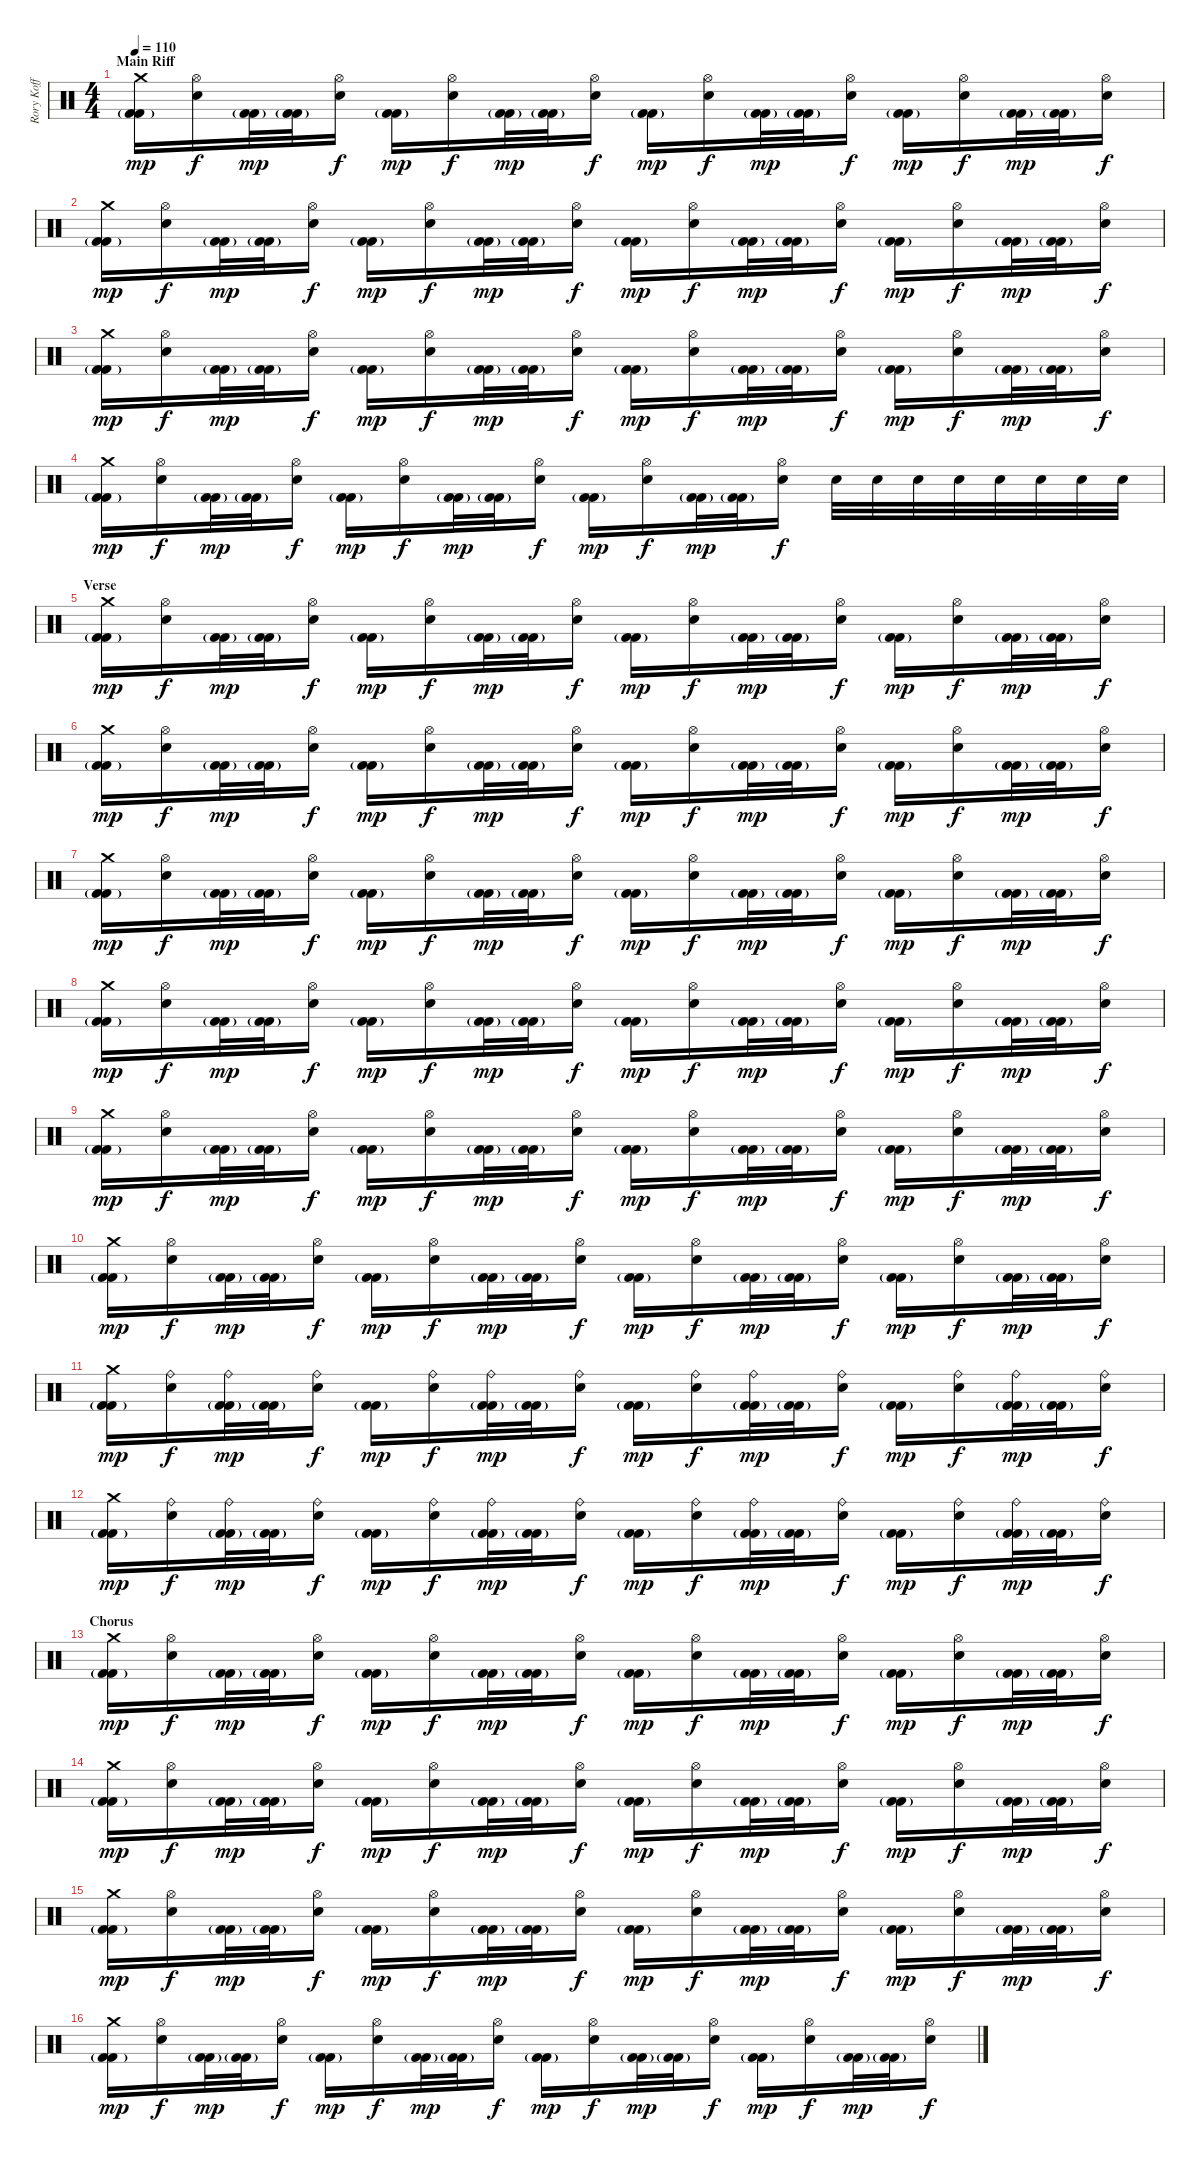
\track ("Rory Koff" "Rory Koff") {instrument percussion}
\staff {score}
\articulation defaults
\ts (4 4)
\section ("" "Main Riff")
\tempo 110
\clef neutral
\ks c
("Crash medium (hit)" "Kick (hit) 2"{g} "Kick (hit) 2").16{dy mp} ("Hi-Hat (open)" "Snare (hit) 2").16{dy f} ("Kick (hit) 2"{g} "Kick (hit) 2").32{dy mp} ("Kick (hit) 2"{g} "Kick (hit) 2").32 ("Hi-Hat (open)" "Snare (hit) 2").16{dy f} ("Kick (hit) 2"{g} "Kick (hit) 2").16{dy mp} ("Hi-Hat (open)" "Snare (hit) 2").16{dy f} ("Kick (hit) 2"{g} "Kick (hit) 2").32{dy mp} ("Kick (hit) 2"{g} "Kick (hit) 2").32 ("Hi-Hat (open)" "Snare (hit) 2").16{dy f} ("Kick (hit) 2"{g} "Kick (hit) 2").16{dy mp} ("Hi-Hat (open)" "Snare (hit) 2").16{dy f} ("Kick (hit) 2"{g} "Kick (hit) 2").32{dy mp} ("Kick (hit) 2"{g} "Kick (hit) 2").32 ("Hi-Hat (open)" "Snare (hit) 2").16{dy f} ("Kick (hit) 2"{g} "Kick (hit) 2").16{dy mp} ("Hi-Hat (open)" "Snare (hit) 2").16{dy f} ("Kick (hit) 2"{g} "Kick (hit) 2").32{dy mp} ("Kick (hit) 2"{g} "Kick (hit) 2").32 ("Hi-Hat (open)" "Snare (hit) 2").16{dy f} |
("Crash medium (hit)" "Kick (hit) 2"{g} "Kick (hit) 2").16{dy mp} ("Hi-Hat (open)" "Snare (hit) 2").16{dy f} ("Kick (hit) 2"{g} "Kick (hit) 2").32{dy mp} ("Kick (hit) 2"{g} "Kick (hit) 2").32 ("Hi-Hat (open)" "Snare (hit) 2").16{dy f} ("Kick (hit) 2"{g} "Kick (hit) 2").16{dy mp} ("Hi-Hat (open)" "Snare (hit) 2").16{dy f} ("Kick (hit) 2"{g} "Kick (hit) 2").32{dy mp} ("Kick (hit) 2"{g} "Kick (hit) 2").32 ("Hi-Hat (open)" "Snare (hit) 2").16{dy f} ("Kick (hit) 2"{g} "Kick (hit) 2").16{dy mp} ("Hi-Hat (open)" "Snare (hit) 2").16{dy f} ("Kick (hit) 2"{g} "Kick (hit) 2").32{dy mp} ("Kick (hit) 2"{g} "Kick (hit) 2").32 ("Hi-Hat (open)" "Snare (hit) 2").16{dy f} ("Kick (hit) 2"{g} "Kick (hit) 2").16{dy mp} ("Hi-Hat (open)" "Snare (hit) 2").16{dy f} ("Kick (hit) 2"{g} "Kick (hit) 2").32{dy mp} ("Kick (hit) 2"{g} "Kick (hit) 2").32 ("Hi-Hat (open)" "Snare (hit) 2").16{dy f} |
("Crash medium (hit)" "Kick (hit) 2"{g} "Kick (hit) 2").16{dy mp} ("Hi-Hat (open)" "Snare (hit) 2").16{dy f} ("Kick (hit) 2"{g} "Kick (hit) 2").32{dy mp} ("Kick (hit) 2"{g} "Kick (hit) 2").32 ("Hi-Hat (open)" "Snare (hit) 2").16{dy f} ("Kick (hit) 2"{g} "Kick (hit) 2").16{dy mp} ("Hi-Hat (open)" "Snare (hit) 2").16{dy f} ("Kick (hit) 2"{g} "Kick (hit) 2").32{dy mp} ("Kick (hit) 2"{g} "Kick (hit) 2").32 ("Hi-Hat (open)" "Snare (hit) 2").16{dy f} ("Kick (hit) 2"{g} "Kick (hit) 2").16{dy mp} ("Hi-Hat (open)" "Snare (hit) 2").16{dy f} ("Kick (hit) 2"{g} "Kick (hit) 2").32{dy mp} ("Kick (hit) 2"{g} "Kick (hit) 2").32 ("Hi-Hat (open)" "Snare (hit) 2").16{dy f} ("Kick (hit) 2"{g} "Kick (hit) 2").16{dy mp} ("Hi-Hat (open)" "Snare (hit) 2").16{dy f} ("Kick (hit) 2"{g} "Kick (hit) 2").32{dy mp} ("Kick (hit) 2"{g} "Kick (hit) 2").32 ("Hi-Hat (open)" "Snare (hit) 2").16{dy f} |
("Crash medium (hit)" "Kick (hit) 2"{g} "Kick (hit) 2").16{dy mp} ("Hi-Hat (open)" "Snare (hit) 2").16{dy f} ("Kick (hit) 2"{g} "Kick (hit) 2").32{dy mp} ("Kick (hit) 2"{g} "Kick (hit) 2").32 ("Hi-Hat (open)" "Snare (hit) 2").16{dy f} ("Kick (hit) 2"{g} "Kick (hit) 2").16{dy mp} ("Hi-Hat (open)" "Snare (hit) 2").16{dy f} ("Kick (hit) 2"{g} "Kick (hit) 2").32{dy mp} ("Kick (hit) 2"{g} "Kick (hit) 2").32 ("Hi-Hat (open)" "Snare (hit) 2").16{dy f} ("Kick (hit) 2"{g} "Kick (hit) 2").16{dy mp} ("Hi-Hat (open)" "Snare (hit) 2").16{dy f} ("Kick (hit) 2"{g} "Kick (hit) 2").32{dy mp} ("Kick (hit) 2"{g} "Kick (hit) 2").32 ("Hi-Hat (open)" "Snare (hit) 2").16{dy f} "Snare (hit) 2".32 "Snare (hit) 2".32 "Snare (hit) 2".32 "Snare (hit) 2".32 "Snare (hit) 2".32 "Snare (hit) 2".32 "Snare (hit) 2".32 "Snare (hit) 2".32 |
\section ("" "Verse")
("Crash medium (hit)" "Kick (hit) 2"{g} "Kick (hit) 2").16{dy mp} ("Hi-Hat (open)" "Snare (hit) 2").16{dy f} ("Kick (hit) 2"{g} "Kick (hit) 2").32{dy mp} ("Kick (hit) 2"{g} "Kick (hit) 2").32 ("Hi-Hat (open)" "Snare (hit) 2").16{dy f} ("Kick (hit) 2"{g} "Kick (hit) 2").16{dy mp} ("Hi-Hat (open)" "Snare (hit) 2").16{dy f} ("Kick (hit) 2"{g} "Kick (hit) 2").32{dy mp} ("Kick (hit) 2"{g} "Kick (hit) 2").32 ("Hi-Hat (open)" "Snare (hit) 2").16{dy f} ("Kick (hit) 2"{g} "Kick (hit) 2").16{dy mp} ("Hi-Hat (open)" "Snare (hit) 2").16{dy f} ("Kick (hit) 2"{g} "Kick (hit) 2").32{dy mp} ("Kick (hit) 2"{g} "Kick (hit) 2").32 ("Hi-Hat (open)" "Snare (hit) 2").16{dy f} ("Kick (hit) 2"{g} "Kick (hit) 2").16{dy mp} ("Hi-Hat (open)" "Snare (hit) 2").16{dy f} ("Kick (hit) 2"{g} "Kick (hit) 2").32{dy mp} ("Kick (hit) 2"{g} "Kick (hit) 2").32 ("Hi-Hat (open)" "Snare (hit) 2").16{dy f} |
("Crash medium (hit)" "Kick (hit) 2"{g} "Kick (hit) 2").16{dy mp} ("Hi-Hat (open)" "Snare (hit) 2").16{dy f} ("Kick (hit) 2"{g} "Kick (hit) 2").32{dy mp} ("Kick (hit) 2"{g} "Kick (hit) 2").32 ("Hi-Hat (open)" "Snare (hit) 2").16{dy f} ("Kick (hit) 2"{g} "Kick (hit) 2").16{dy mp} ("Hi-Hat (open)" "Snare (hit) 2").16{dy f} ("Kick (hit) 2"{g} "Kick (hit) 2").32{dy mp} ("Kick (hit) 2"{g} "Kick (hit) 2").32 ("Hi-Hat (open)" "Snare (hit) 2").16{dy f} ("Kick (hit) 2"{g} "Kick (hit) 2").16{dy mp} ("Hi-Hat (open)" "Snare (hit) 2").16{dy f} ("Kick (hit) 2"{g} "Kick (hit) 2").32{dy mp} ("Kick (hit) 2"{g} "Kick (hit) 2").32 ("Hi-Hat (open)" "Snare (hit) 2").16{dy f} ("Kick (hit) 2"{g} "Kick (hit) 2").16{dy mp} ("Hi-Hat (open)" "Snare (hit) 2").16{dy f} ("Kick (hit) 2"{g} "Kick (hit) 2").32{dy mp} ("Kick (hit) 2"{g} "Kick (hit) 2").32 ("Hi-Hat (open)" "Snare (hit) 2").16{dy f} |
("Crash medium (hit)" "Kick (hit) 2"{g} "Kick (hit) 2").16{dy mp} ("Hi-Hat (open)" "Snare (hit) 2").16{dy f} ("Kick (hit) 2"{g} "Kick (hit) 2").32{dy mp} ("Kick (hit) 2"{g} "Kick (hit) 2").32 ("Hi-Hat (open)" "Snare (hit) 2").16{dy f} ("Kick (hit) 2"{g} "Kick (hit) 2").16{dy mp} ("Hi-Hat (open)" "Snare (hit) 2").16{dy f} ("Kick (hit) 2"{g} "Kick (hit) 2").32{dy mp} ("Kick (hit) 2"{g} "Kick (hit) 2").32 ("Hi-Hat (open)" "Snare (hit) 2").16{dy f} ("Kick (hit) 2"{g} "Kick (hit) 2").16{dy mp} ("Hi-Hat (open)" "Snare (hit) 2").16{dy f} ("Kick (hit) 2"{g} "Kick (hit) 2").32{dy mp} ("Kick (hit) 2"{g} "Kick (hit) 2").32 ("Hi-Hat (open)" "Snare (hit) 2").16{dy f} ("Kick (hit) 2"{g} "Kick (hit) 2").16{dy mp} ("Hi-Hat (open)" "Snare (hit) 2").16{dy f} ("Kick (hit) 2"{g} "Kick (hit) 2").32{dy mp} ("Kick (hit) 2"{g} "Kick (hit) 2").32 ("Hi-Hat (open)" "Snare (hit) 2").16{dy f} |
("Crash medium (hit)" "Kick (hit) 2"{g} "Kick (hit) 2").16{dy mp} ("Hi-Hat (open)" "Snare (hit) 2").16{dy f} ("Kick (hit) 2"{g} "Kick (hit) 2").32{dy mp} ("Kick (hit) 2"{g} "Kick (hit) 2").32 ("Hi-Hat (open)" "Snare (hit) 2").16{dy f} ("Kick (hit) 2"{g} "Kick (hit) 2").16{dy mp} ("Hi-Hat (open)" "Snare (hit) 2").16{dy f} ("Kick (hit) 2"{g} "Kick (hit) 2").32{dy mp} ("Kick (hit) 2"{g} "Kick (hit) 2").32 ("Hi-Hat (open)" "Snare (hit) 2").16{dy f} ("Kick (hit) 2"{g} "Kick (hit) 2").16{dy mp} ("Hi-Hat (open)" "Snare (hit) 2").16{dy f} ("Kick (hit) 2"{g} "Kick (hit) 2").32{dy mp} ("Kick (hit) 2"{g} "Kick (hit) 2").32 ("Hi-Hat (open)" "Snare (hit) 2").16{dy f} ("Kick (hit) 2"{g} "Kick (hit) 2").16{dy mp} ("Hi-Hat (open)" "Snare (hit) 2").16{dy f} ("Kick (hit) 2"{g} "Kick (hit) 2").32{dy mp} ("Kick (hit) 2"{g} "Kick (hit) 2").32 ("Hi-Hat (open)" "Snare (hit) 2").16{dy f} |
("Crash medium (hit)" "Kick (hit) 2"{g} "Kick (hit) 2").16{dy mp} ("Hi-Hat (open)" "Snare (hit) 2").16{dy f} ("Kick (hit) 2"{g} "Kick (hit) 2").32{dy mp} ("Kick (hit) 2"{g} "Kick (hit) 2").32 ("Hi-Hat (open)" "Snare (hit) 2").16{dy f} ("Kick (hit) 2"{g} "Kick (hit) 2").16{dy mp} ("Hi-Hat (open)" "Snare (hit) 2").16{dy f} ("Kick (hit) 2"{g} "Kick (hit) 2").32{dy mp} ("Kick (hit) 2"{g} "Kick (hit) 2").32 ("Hi-Hat (open)" "Snare (hit) 2").16{dy f} ("Kick (hit) 2"{g} "Kick (hit) 2").16{dy mp} ("Hi-Hat (open)" "Snare (hit) 2").16{dy f} ("Kick (hit) 2"{g} "Kick (hit) 2").32{dy mp} ("Kick (hit) 2"{g} "Kick (hit) 2").32 ("Hi-Hat (open)" "Snare (hit) 2").16{dy f} ("Kick (hit) 2"{g} "Kick (hit) 2").16{dy mp} ("Hi-Hat (open)" "Snare (hit) 2").16{dy f} ("Kick (hit) 2"{g} "Kick (hit) 2").32{dy mp} ("Kick (hit) 2"{g} "Kick (hit) 2").32 ("Hi-Hat (open)" "Snare (hit) 2").16{dy f} |
("Crash medium (hit)" "Kick (hit) 2"{g} "Kick (hit) 2").16{dy mp} ("Hi-Hat (open)" "Snare (hit) 2").16{dy f} ("Kick (hit) 2"{g} "Kick (hit) 2").32{dy mp} ("Kick (hit) 2"{g} "Kick (hit) 2").32 ("Hi-Hat (open)" "Snare (hit) 2").16{dy f} ("Kick (hit) 2"{g} "Kick (hit) 2").16{dy mp} ("Hi-Hat (open)" "Snare (hit) 2").16{dy f} ("Kick (hit) 2"{g} "Kick (hit) 2").32{dy mp} ("Kick (hit) 2"{g} "Kick (hit) 2").32 ("Hi-Hat (open)" "Snare (hit) 2").16{dy f} ("Kick (hit) 2"{g} "Kick (hit) 2").16{dy mp} ("Hi-Hat (open)" "Snare (hit) 2").16{dy f} ("Kick (hit) 2"{g} "Kick (hit) 2").32{dy mp} ("Kick (hit) 2"{g} "Kick (hit) 2").32 ("Hi-Hat (open)" "Snare (hit) 2").16{dy f} ("Kick (hit) 2"{g} "Kick (hit) 2").16{dy mp} ("Hi-Hat (open)" "Snare (hit) 2").16{dy f} ("Kick (hit) 2"{g} "Kick (hit) 2").32{dy mp} ("Kick (hit) 2"{g} "Kick (hit) 2").32 ("Hi-Hat (open)" "Snare (hit) 2").16{dy f} |
("Crash medium (hit)" "Kick (hit) 2"{g} "Kick (hit) 2").16{dy mp} ("Ride (bell)" "Snare (hit) 2").16{dy f} ("Ride (bell)" "Kick (hit) 2"{g} "Kick (hit) 2").32{dy mp} ("Kick (hit) 2"{g} "Kick (hit) 2").32 ("Ride (bell)" "Snare (hit) 2").16{dy f} ("Kick (hit) 2"{g} "Kick (hit) 2").16{dy mp} ("Ride (bell)" "Snare (hit) 2").16{dy f} ("Ride (bell)" "Kick (hit) 2"{g} "Kick (hit) 2").32{dy mp} ("Kick (hit) 2"{g} "Kick (hit) 2").32 ("Ride (bell)" "Snare (hit) 2").16{dy f} ("Kick (hit) 2"{g} "Kick (hit) 2").16{dy mp} ("Ride (bell)" "Snare (hit) 2").16{dy f} ("Ride (bell)" "Kick (hit) 2"{g} "Kick (hit) 2").32{dy mp} ("Kick (hit) 2"{g} "Kick (hit) 2").32 ("Ride (bell)" "Snare (hit) 2").16{dy f} ("Kick (hit) 2"{g} "Kick (hit) 2").16{dy mp} ("Ride (bell)" "Snare (hit) 2").16{dy f} ("Ride (bell)" "Kick (hit) 2"{g} "Kick (hit) 2").32{dy mp} ("Kick (hit) 2"{g} "Kick (hit) 2").32 ("Ride (bell)" "Snare (hit) 2").16{dy f} |
("Crash medium (hit)" "Kick (hit) 2"{g} "Kick (hit) 2").16{dy mp} ("Ride (bell)" "Snare (hit) 2").16{dy f} ("Ride (bell)" "Kick (hit) 2"{g} "Kick (hit) 2").32{dy mp} ("Kick (hit) 2"{g} "Kick (hit) 2").32 ("Ride (bell)" "Snare (hit) 2").16{dy f} ("Kick (hit) 2"{g} "Kick (hit) 2").16{dy mp} ("Ride (bell)" "Snare (hit) 2").16{dy f} ("Ride (bell)" "Kick (hit) 2"{g} "Kick (hit) 2").32{dy mp} ("Kick (hit) 2"{g} "Kick (hit) 2").32 ("Ride (bell)" "Snare (hit) 2").16{dy f} ("Kick (hit) 2"{g} "Kick (hit) 2").16{dy mp} ("Ride (bell)" "Snare (hit) 2").16{dy f} ("Ride (bell)" "Kick (hit) 2"{g} "Kick (hit) 2").32{dy mp} ("Kick (hit) 2"{g} "Kick (hit) 2").32 ("Ride (bell)" "Snare (hit) 2").16{dy f} ("Kick (hit) 2"{g} "Kick (hit) 2").16{dy mp} ("Ride (bell)" "Snare (hit) 2").16{dy f} ("Ride (bell)" "Kick (hit) 2"{g} "Kick (hit) 2").32{dy mp} ("Kick (hit) 2"{g} "Kick (hit) 2").32 ("Ride (bell)" "Snare (hit) 2").16{dy f} |
\section ("" "Chorus")
("Crash medium (hit)" "Kick (hit) 2"{g} "Kick (hit) 2").16{dy mp} ("Hi-Hat (open)" "Snare (hit) 2").16{dy f} ("Kick (hit) 2"{g} "Kick (hit) 2").32{dy mp} ("Kick (hit) 2"{g} "Kick (hit) 2").32 ("Hi-Hat (open)" "Snare (hit) 2").16{dy f} ("Kick (hit) 2"{g} "Kick (hit) 2").16{dy mp} ("Hi-Hat (open)" "Snare (hit) 2").16{dy f} ("Kick (hit) 2"{g} "Kick (hit) 2").32{dy mp} ("Kick (hit) 2"{g} "Kick (hit) 2").32 ("Hi-Hat (open)" "Snare (hit) 2").16{dy f} ("Kick (hit) 2"{g} "Kick (hit) 2").16{dy mp} ("Hi-Hat (open)" "Snare (hit) 2").16{dy f} ("Kick (hit) 2"{g} "Kick (hit) 2").32{dy mp} ("Kick (hit) 2"{g} "Kick (hit) 2").32 ("Hi-Hat (open)" "Snare (hit) 2").16{dy f} ("Kick (hit) 2"{g} "Kick (hit) 2").16{dy mp} ("Hi-Hat (open)" "Snare (hit) 2").16{dy f} ("Kick (hit) 2"{g} "Kick (hit) 2").32{dy mp} ("Kick (hit) 2"{g} "Kick (hit) 2").32 ("Hi-Hat (open)" "Snare (hit) 2").16{dy f} |
("Crash medium (hit)" "Kick (hit) 2"{g} "Kick (hit) 2").16{dy mp} ("Hi-Hat (open)" "Snare (hit) 2").16{dy f} ("Kick (hit) 2"{g} "Kick (hit) 2").32{dy mp} ("Kick (hit) 2"{g} "Kick (hit) 2").32 ("Hi-Hat (open)" "Snare (hit) 2").16{dy f} ("Kick (hit) 2"{g} "Kick (hit) 2").16{dy mp} ("Hi-Hat (open)" "Snare (hit) 2").16{dy f} ("Kick (hit) 2"{g} "Kick (hit) 2").32{dy mp} ("Kick (hit) 2"{g} "Kick (hit) 2").32 ("Hi-Hat (open)" "Snare (hit) 2").16{dy f} ("Kick (hit) 2"{g} "Kick (hit) 2").16{dy mp} ("Hi-Hat (open)" "Snare (hit) 2").16{dy f} ("Kick (hit) 2"{g} "Kick (hit) 2").32{dy mp} ("Kick (hit) 2"{g} "Kick (hit) 2").32 ("Hi-Hat (open)" "Snare (hit) 2").16{dy f} ("Kick (hit) 2"{g} "Kick (hit) 2").16{dy mp} ("Hi-Hat (open)" "Snare (hit) 2").16{dy f} ("Kick (hit) 2"{g} "Kick (hit) 2").32{dy mp} ("Kick (hit) 2"{g} "Kick (hit) 2").32 ("Hi-Hat (open)" "Snare (hit) 2").16{dy f} |
("Crash medium (hit)" "Kick (hit) 2"{g} "Kick (hit) 2").16{dy mp} ("Hi-Hat (open)" "Snare (hit) 2").16{dy f} ("Kick (hit) 2"{g} "Kick (hit) 2").32{dy mp} ("Kick (hit) 2"{g} "Kick (hit) 2").32 ("Hi-Hat (open)" "Snare (hit) 2").16{dy f} ("Kick (hit) 2"{g} "Kick (hit) 2").16{dy mp} ("Hi-Hat (open)" "Snare (hit) 2").16{dy f} ("Kick (hit) 2"{g} "Kick (hit) 2").32{dy mp} ("Kick (hit) 2"{g} "Kick (hit) 2").32 ("Hi-Hat (open)" "Snare (hit) 2").16{dy f} ("Kick (hit) 2"{g} "Kick (hit) 2").16{dy mp} ("Hi-Hat (open)" "Snare (hit) 2").16{dy f} ("Kick (hit) 2"{g} "Kick (hit) 2").32{dy mp} ("Kick (hit) 2"{g} "Kick (hit) 2").32 ("Hi-Hat (open)" "Snare (hit) 2").16{dy f} ("Kick (hit) 2"{g} "Kick (hit) 2").16{dy mp} ("Hi-Hat (open)" "Snare (hit) 2").16{dy f} ("Kick (hit) 2"{g} "Kick (hit) 2").32{dy mp} ("Kick (hit) 2"{g} "Kick (hit) 2").32 ("Hi-Hat (open)" "Snare (hit) 2").16{dy f} |
("Crash medium (hit)" "Kick (hit) 2"{g} "Kick (hit) 2").16{dy mp} ("Hi-Hat (open)" "Snare (hit) 2").16{dy f} ("Kick (hit) 2"{g} "Kick (hit) 2").32{dy mp} ("Kick (hit) 2"{g} "Kick (hit) 2").32 ("Hi-Hat (open)" "Snare (hit) 2").16{dy f} ("Kick (hit) 2"{g} "Kick (hit) 2").16{dy mp} ("Hi-Hat (open)" "Snare (hit) 2").16{dy f} ("Kick (hit) 2"{g} "Kick (hit) 2").32{dy mp} ("Kick (hit) 2"{g} "Kick (hit) 2").32 ("Hi-Hat (open)" "Snare (hit) 2").16{dy f} ("Kick (hit) 2"{g} "Kick (hit) 2").16{dy mp} ("Hi-Hat (open)" "Snare (hit) 2").16{dy f} ("Kick (hit) 2"{g} "Kick (hit) 2").32{dy mp} ("Kick (hit) 2"{g} "Kick (hit) 2").32 ("Hi-Hat (open)" "Snare (hit) 2").16{dy f} ("Kick (hit) 2"{g} "Kick (hit) 2").16{dy mp} ("Hi-Hat (open)" "Snare (hit) 2").16{dy f} ("Kick (hit) 2"{g} "Kick (hit) 2").32{dy mp} ("Kick (hit) 2"{g} "Kick (hit) 2").32 ("Hi-Hat (open)" "Snare (hit) 2").16{dy f}
